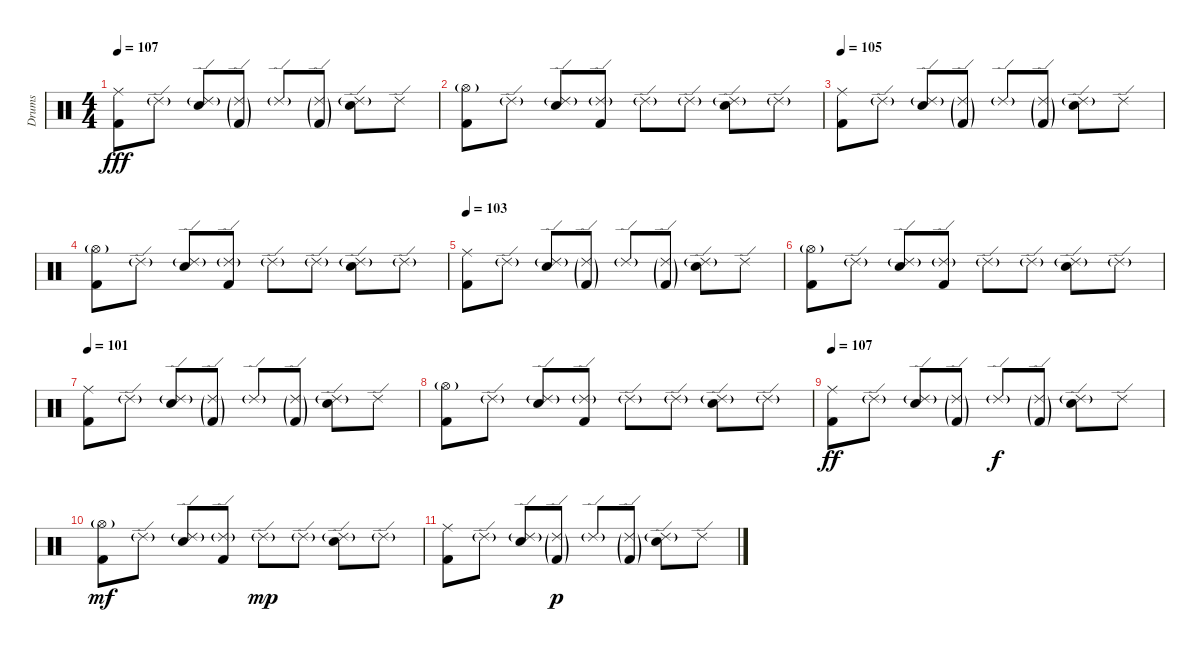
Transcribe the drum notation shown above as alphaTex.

\track ("Drums" "Drums") {instrument percussion}
\staff {score}
\articulation defaults
\ts (4 4)
\tempo 107
\clef neutral
\ks c
("Kick (hit) 2" "Ride (middle)").8{dy fff} "Ride (edge) 2"{g}.8 ("Electric Snare (hit)" "Ride (edge) 2"{g}).8 ("Kick (hit) 2"{g} "Ride (edge) 2"{g}).8 "Ride (edge) 2"{g}.8 ("Kick (hit) 2"{g} "Ride (edge) 2"{g}).8 ("Electric Snare (hit)" "Ride (edge) 2"{g}).8 "Ride (edge) 2".8 |
("Kick (hit) 2" "Hi-Hat (open)"{g}).8 "Ride (edge) 2"{g}.8 ("Electric Snare (hit)" "Ride (edge) 2"{g}).8 ("Kick (hit) 2" "Ride (edge) 2"{g}).8 "Ride (edge) 2"{g}.8 "Ride (edge) 2"{g}.8 ("Electric Snare (hit)" "Ride (edge) 2"{g}).8 "Ride (edge) 2"{g}.8 |
\tempo 105
("Kick (hit) 2" "Ride (middle)").8 "Ride (edge) 2"{g}.8 ("Electric Snare (hit)" "Ride (edge) 2"{g}).8 ("Kick (hit) 2"{g} "Ride (edge) 2"{g}).8 "Ride (edge) 2"{g}.8 ("Kick (hit) 2"{g} "Ride (edge) 2"{g}).8 ("Electric Snare (hit)" "Ride (edge) 2"{g}).8 "Ride (edge) 2".8 |
("Kick (hit) 2" "Hi-Hat (open)"{g}).8 "Ride (edge) 2"{g}.8 ("Electric Snare (hit)" "Ride (edge) 2"{g}).8 ("Kick (hit) 2" "Ride (edge) 2"{g}).8 "Ride (edge) 2"{g}.8 "Ride (edge) 2"{g}.8 ("Electric Snare (hit)" "Ride (edge) 2"{g}).8 "Ride (edge) 2"{g}.8 |
\tempo 103
("Kick (hit) 2" "Ride (middle)").8 "Ride (edge) 2"{g}.8 ("Electric Snare (hit)" "Ride (edge) 2"{g}).8 ("Kick (hit) 2"{g} "Ride (edge) 2"{g}).8 "Ride (edge) 2"{g}.8 ("Kick (hit) 2"{g} "Ride (edge) 2"{g}).8 ("Electric Snare (hit)" "Ride (edge) 2"{g}).8 "Ride (edge) 2".8 |
("Kick (hit) 2" "Hi-Hat (open)"{g}).8 "Ride (edge) 2"{g}.8 ("Electric Snare (hit)" "Ride (edge) 2"{g}).8 ("Kick (hit) 2" "Ride (edge) 2"{g}).8 "Ride (edge) 2"{g}.8 "Ride (edge) 2"{g}.8 ("Electric Snare (hit)" "Ride (edge) 2"{g}).8 "Ride (edge) 2"{g}.8 |
\tempo 101
("Kick (hit) 2" "Ride (middle)").8 "Ride (edge) 2"{g}.8 ("Electric Snare (hit)" "Ride (edge) 2"{g}).8 ("Kick (hit) 2"{g} "Ride (edge) 2"{g}).8 "Ride (edge) 2"{g}.8 ("Kick (hit) 2"{g} "Ride (edge) 2"{g}).8 ("Electric Snare (hit)" "Ride (edge) 2"{g}).8 "Ride (edge) 2".8 |
("Kick (hit) 2" "Hi-Hat (open)"{g}).8 "Ride (edge) 2"{g}.8 ("Electric Snare (hit)" "Ride (edge) 2"{g}).8 ("Kick (hit) 2" "Ride (edge) 2"{g}).8 "Ride (edge) 2"{g}.8 "Ride (edge) 2"{g}.8 ("Electric Snare (hit)" "Ride (edge) 2"{g}).8 "Ride (edge) 2"{g}.8 |
\tempo 107
("Kick (hit) 2" "Ride (middle)").8{dy ff} "Ride (edge) 2"{g}.8 ("Electric Snare (hit)" "Ride (edge) 2"{g}).8 ("Kick (hit) 2"{g} "Ride (edge) 2"{g}).8 "Ride (edge) 2"{g}.8{dy f} ("Kick (hit) 2"{g} "Ride (edge) 2"{g}).8 ("Electric Snare (hit)" "Ride (edge) 2"{g}).8 "Ride (edge) 2".8 |
("Kick (hit) 2" "Hi-Hat (open)"{g}).8{dy mf} "Ride (edge) 2"{g}.8 ("Electric Snare (hit)" "Ride (edge) 2"{g}).8 ("Kick (hit) 2" "Ride (edge) 2"{g}).8 "Ride (edge) 2"{g}.8{dy mp} "Ride (edge) 2"{g}.8 ("Electric Snare (hit)" "Ride (edge) 2"{g}).8 "Ride (edge) 2"{g}.8 |
("Kick (hit) 2" "Ride (middle)").8 "Ride (edge) 2"{g}.8 ("Electric Snare (hit)" "Ride (edge) 2"{g}).8 ("Kick (hit) 2"{g} "Ride (edge) 2"{g}).8{dy p} "Ride (edge) 2"{g}.8 ("Kick (hit) 2"{g} "Ride (edge) 2"{g}).8 ("Electric Snare (hit)" "Ride (edge) 2"{g}).8 "Ride (edge) 2".8
